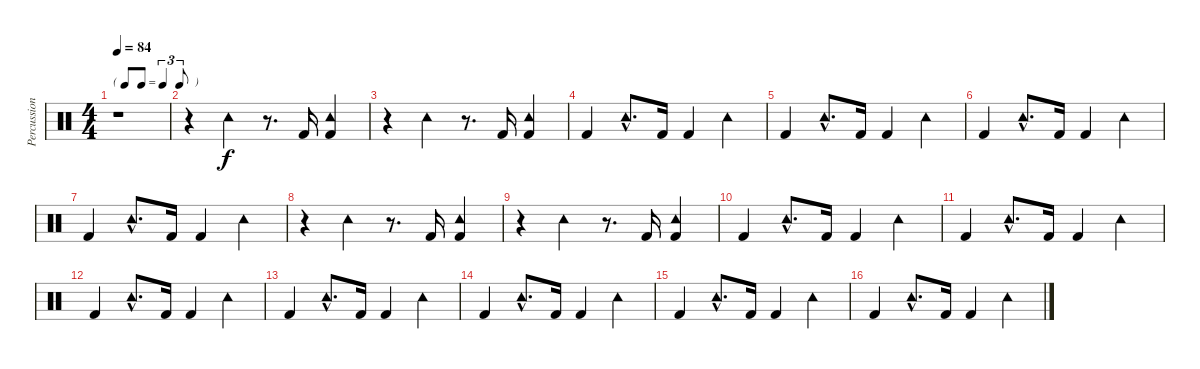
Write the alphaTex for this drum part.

\track ("Percussion" "Percussion") {instrument percussion}
\staff {score}
\articulation defaults
\ts (4 4)
\tf triplet8th
\tempo 84
\clef neutral
\ks c
r.1{dy f} |
r.4 "Tambourine (hit)".4 r.8{d} "Kick (hit) 2".16 ("Kick (hit) 2" "Tambourine (hit)").4 |
r.4 "Tambourine (hit)".4 r.8{d} "Kick (hit) 2".16 ("Kick (hit) 2" "Tambourine (hit)").4 |
"Kick (hit) 2".4 "Tambourine (hit)"{hac}.8{d} "Kick (hit) 2".16 "Kick (hit) 2".4 "Tambourine (hit)".4 |
"Kick (hit) 2".4 "Tambourine (hit)"{hac}.8{d} "Kick (hit) 2".16 "Kick (hit) 2".4 "Tambourine (hit)".4 |
"Kick (hit) 2".4 "Tambourine (hit)"{hac}.8{d} "Kick (hit) 2".16 "Kick (hit) 2".4 "Tambourine (hit)".4 |
"Kick (hit) 2".4 "Tambourine (hit)"{hac}.8{d} "Kick (hit) 2".16 "Kick (hit) 2".4 "Tambourine (hit)".4 |
r.4 "Tambourine (hit)".4 r.8{d} "Kick (hit) 2".16 ("Kick (hit) 2" "Tambourine (hit)").4 |
r.4 "Tambourine (hit)".4 r.8{d} "Kick (hit) 2".16 ("Kick (hit) 2" "Tambourine (hit)").4 |
"Kick (hit) 2".4 "Tambourine (hit)"{hac}.8{d} "Kick (hit) 2".16 "Kick (hit) 2".4 "Tambourine (hit)".4 |
"Kick (hit) 2".4 "Tambourine (hit)"{hac}.8{d} "Kick (hit) 2".16 "Kick (hit) 2".4 "Tambourine (hit)".4 |
"Kick (hit) 2".4 "Tambourine (hit)"{hac}.8{d} "Kick (hit) 2".16 "Kick (hit) 2".4 "Tambourine (hit)".4 |
"Kick (hit) 2".4 "Tambourine (hit)"{hac}.8{d} "Kick (hit) 2".16 "Kick (hit) 2".4 "Tambourine (hit)".4 |
"Kick (hit) 2".4 "Tambourine (hit)"{hac}.8{d} "Kick (hit) 2".16 "Kick (hit) 2".4 "Tambourine (hit)".4 |
"Kick (hit) 2".4 "Tambourine (hit)"{hac}.8{d} "Kick (hit) 2".16 "Kick (hit) 2".4 "Tambourine (hit)".4 |
"Kick (hit) 2".4 "Tambourine (hit)"{hac}.8{d} "Kick (hit) 2".16 "Kick (hit) 2".4 "Tambourine (hit)".4
